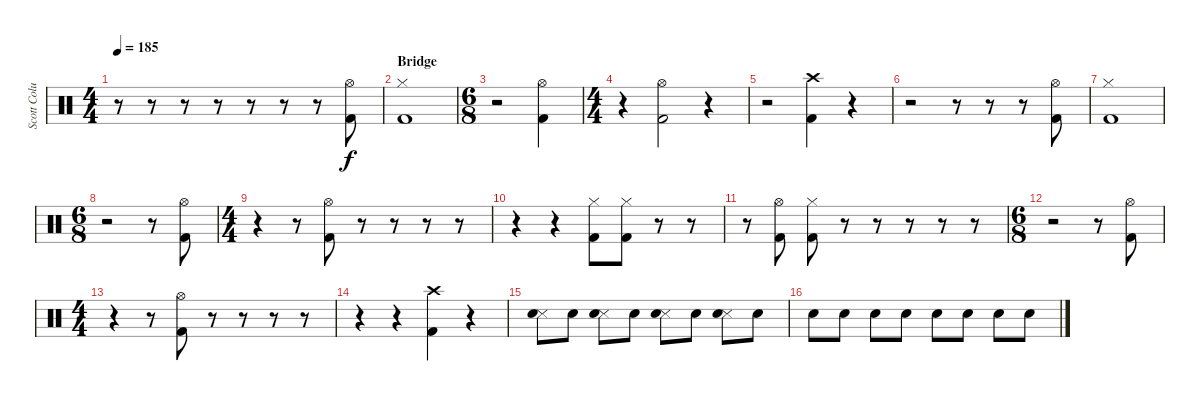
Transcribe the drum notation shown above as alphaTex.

\track ("Scott Columbus" "Scott Colu") {instrument percussion}
\staff {score}
\articulation defaults
\ts (4 4)
\tempo 185
\clef neutral
\ks c
r.8{dy f} r.8 r.8 r.8 r.8 r.8 r.8 ("Hi-Hat (open)" "Kick (hit) 2").8 |
\section ("" "Bridge")
("Hi-Hat (closed)" "Kick (hit) 2").1 |
\ts (6 8)
r.2 ("Hi-Hat (open)" "Kick (hit) 2").4 |
\ts (4 4)
r.4 ("Hi-Hat (open)" "Kick (hit) 2").2 r.4 |
r.2 ("Crash high (hit)" "Kick (hit) 2").4 r.4 |
r.2 r.8 r.8 r.8 ("Hi-Hat (open)" "Kick (hit) 2").8 |
("Hi-Hat (closed)" "Kick (hit) 2").1 |
\ts (6 8)
r.2 r.8 ("Hi-Hat (open)" "Kick (hit) 2").8 |
\ts (4 4)
r.4 r.8 ("Hi-Hat (open)" "Kick (hit) 2").8 r.8 r.8 r.8 r.8 |
r.4 r.4 ("Hi-Hat (closed)" "Kick (hit) 2").8 ("Hi-Hat (closed)" "Kick (hit) 2").8 r.8 r.8 |
r.8 ("Hi-Hat (open)" "Kick (hit) 2").8 ("Hi-Hat (closed)" "Kick (hit) 2").8 r.8 r.8 r.8 r.8 r.8 |
\ts (6 8)
r.2 r.8 ("Hi-Hat (open)" "Kick (hit) 2").8 |
\ts (4 4)
r.4 r.8 ("Hi-Hat (open)" "Kick (hit) 2").8 r.8 r.8 r.8 r.8 |
r.4 r.4 ("Crash high (hit)" "Kick (hit) 2").4 r.4 |
("Snare (side stick) 3" "Electric Snare (hit)").8{volume 6} "Electric Snare (hit)".8 ("Snare (side stick) 3" "Electric Snare (hit)").8 "Electric Snare (hit)".8 ("Snare (side stick) 3" "Electric Snare (hit)").8 "Electric Snare (hit)".8 ("Snare (side stick) 3" "Electric Snare (hit)").8 "Electric Snare (hit)".8 |
"Electric Snare (hit)".8 "Electric Snare (hit)".8 "Electric Snare (hit)".8 "Electric Snare (hit)".8 "Electric Snare (hit)".8 "Electric Snare (hit)".8 "Electric Snare (hit)".8 "Electric Snare (hit)".8
